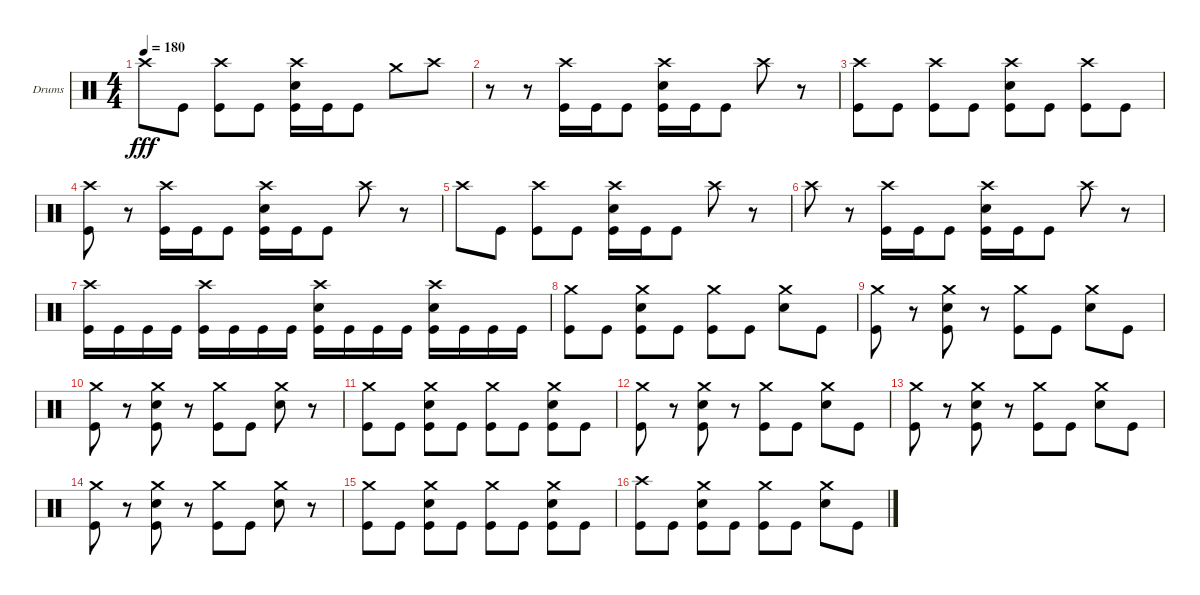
\bracketExtendMode groupsimilarinstruments
\firstSystemTrackNameOrientation horizontal
\otherSystemsTrackNameOrientation horizontal
\track ("Drumkit" "Drums") {instrument percussion}
\staff {score}
\articulation defaults
\ts (4 4)
\tempo 180
\clef neutral
\ks c "Crash high (hit)".8{dy fff} "Kick (hit)".8
("Crash high (hit)" "Kick (hit)").8 "Kick (hit)".8 ("Crash high (hit)" "Snare (hit) 2" "Kick (hit)").16 "Kick (hit)".16 "Kick (hit)".8 "Crash medium (hit)".8 "Crash high (hit)".8 |
r.8 r.8 ("Crash high (hit)" "Kick (hit)").16 "Kick (hit)".16 "Kick (hit)".8 ("Crash high (hit)" "Snare (hit) 2" "Kick (hit)").16 "Kick (hit)".16 "Kick (hit)".8 "Crash high (hit)".8 r.8 |
("Crash high (hit)" "Kick (hit)").8 "Kick (hit)".8 ("Crash high (hit)" "Kick (hit)").8 "Kick (hit)".8 ("Crash high (hit)" "Snare (hit) 2" "Kick (hit)").8 "Kick (hit)".8 ("Crash high (hit)" "Kick (hit)").8 "Kick (hit)".8 |
("Crash high (hit)" "Kick (hit)").8 r.8 ("Crash high (hit)" "Kick (hit)").16 "Kick (hit)".16 "Kick (hit)".8 ("Crash high (hit)" "Snare (hit) 2" "Kick (hit)").16 "Kick (hit)".16 "Kick (hit)".8 "Crash high (hit)".8 r.8 |
"Crash high (hit)".8 "Kick (hit)".8 ("Crash high (hit)" "Kick (hit)").8 "Kick (hit)".8 ("Crash high (hit)" "Snare (hit) 2" "Kick (hit)").16 "Kick (hit)".16 "Kick (hit)".8 "Crash high (hit)".8 r.8 |
"Crash high (hit)".8 r.8 ("Crash high (hit)" "Kick (hit)").16 "Kick (hit)".16 "Kick (hit)".8 ("Crash high (hit)" "Snare (hit) 2" "Kick (hit)").16 "Kick (hit)".16 "Kick (hit)".8 "Crash high (hit)".8 r.8 |
("Crash high (hit)" "Kick (hit)").16 "Kick (hit)".16 "Kick (hit)".16 "Kick (hit)".16 ("Crash high (hit)" "Kick (hit)").16 "Kick (hit)".16 "Kick (hit)".16 "Kick (hit)".16 ("Crash high (hit)" "Snare (hit) 2" "Kick (hit)").16 "Kick (hit)".16 "Kick (hit)".16 "Kick (hit)".16 ("Crash high (hit)" "Snare (hit) 2" "Kick (hit)").16 "Kick (hit)".16 "Kick (hit)".16 "Kick (hit)".16 |
("Crash medium (hit)" "Kick (hit)").8 "Kick (hit)".8 ("Crash medium (hit)" "Snare (hit) 2" "Kick (hit)").8 "Kick (hit)".8 ("Crash medium (hit)" "Kick (hit)").8 "Kick (hit)".8 ("Crash medium (hit)" "Snare (hit) 2").8 "Kick (hit)".8 |
("Crash medium (hit)" "Kick (hit)").8 r.8 ("Crash medium (hit)" "Snare (hit) 2" "Kick (hit)").8 r.8 ("Crash medium (hit)" "Kick (hit)").8 "Kick (hit)".8 ("Crash medium (hit)" "Snare (hit) 2").8 "Kick (hit)".8 |
("Crash medium (hit)" "Kick (hit)").8 r.8 ("Crash medium (hit)" "Snare (hit) 2" "Kick (hit)").8 r.8 ("Crash medium (hit)" "Kick (hit)").8 "Kick (hit)".8 ("Crash medium (hit)" "Snare (hit) 2").8 r.8 |
("Crash medium (hit)" "Kick (hit)").8 "Kick (hit)".8 ("Crash medium (hit)" "Snare (hit) 2" "Kick (hit)").8 "Kick (hit)".8 ("Crash medium (hit)" "Kick (hit)").8 "Kick (hit)".8 ("Crash medium (hit)" "Snare (hit) 2" "Kick (hit)").8 "Kick (hit)".8 |
("Crash medium (hit)" "Kick (hit)").8 r.8 ("Crash medium (hit)" "Snare (hit) 2" "Kick (hit)").8 r.8 ("Crash medium (hit)" "Kick (hit)").8 "Kick (hit)".8 ("Crash medium (hit)" "Snare (hit) 2").8 "Kick (hit)".8 |
("Crash medium (hit)" "Kick (hit)").8 r.8 ("Crash medium (hit)" "Snare (hit) 2" "Kick (hit)").8 r.8 ("Crash medium (hit)" "Kick (hit)").8 "Kick (hit)".8 ("Crash medium (hit)" "Snare (hit) 2").8 "Kick (hit)".8 |
("Crash medium (hit)" "Kick (hit)").8 r.8 ("Crash medium (hit)" "Snare (hit) 2" "Kick (hit)").8 r.8 ("Crash medium (hit)" "Kick (hit)").8 "Kick (hit)".8 ("Crash medium (hit)" "Snare (hit) 2").8 r.8 |
("Crash medium (hit)" "Kick (hit)").8 "Kick (hit)".8 ("Crash medium (hit)" "Snare (hit) 2" "Kick (hit)").8 "Kick (hit)".8 ("Crash medium (hit)" "Kick (hit)").8 "Kick (hit)".8 ("Crash medium (hit)" "Snare (hit) 2" "Kick (hit)").8 "Kick (hit)".8 |
("Crash high (hit)" "Kick (hit)").8 "Kick (hit)".8 ("Crash medium (hit)" "Snare (hit) 2" "Kick (hit)").8 "Kick (hit)".8 ("Crash medium (hit)" "Kick (hit)").8 "Kick (hit)".8 ("Crash medium (hit)" "Snare (hit) 2").8 "Kick (hit)".8
